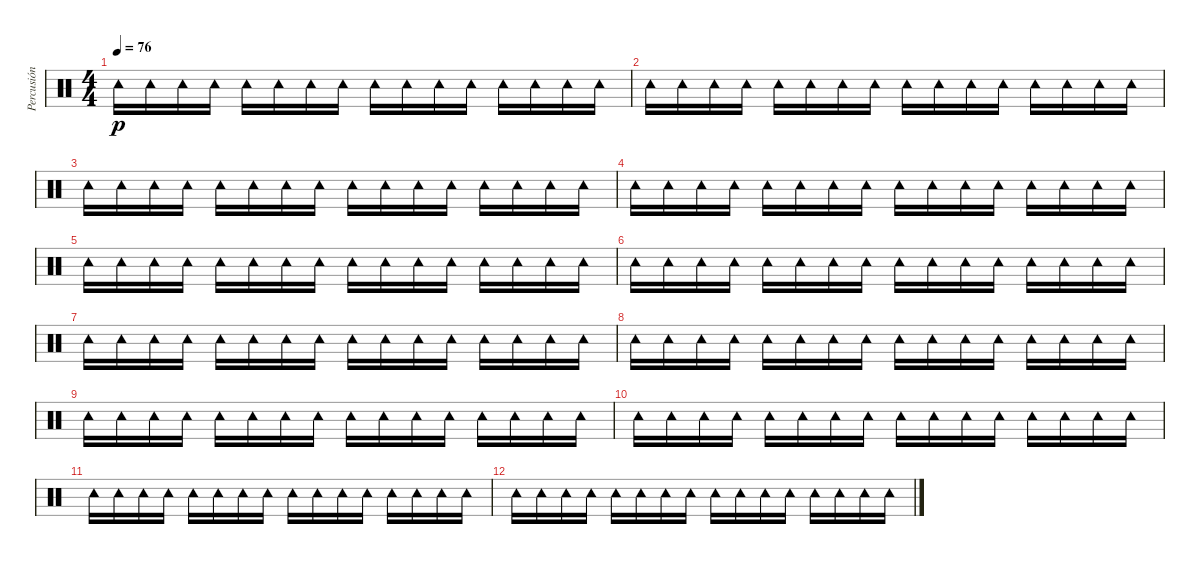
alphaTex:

\track ("Percusión" "Percusión") {instrument percussion}
\staff {score}
\articulation defaults
\ts (4 4)
\tempo 76
\clef neutral
\ks c "Tambourine (hit)".16{dy p} "Tambourine (hit)".16 "Tambourine (hit)".16 "Tambourine (hit)".16 "Tambourine (hit)".16 "Tambourine (hit)".16 "Tambourine (hit)".16 "Tambourine (hit)".16 "Tambourine (hit)".16 "Tambourine (hit)".16 "Tambourine (hit)".16 "Tambourine (hit)".16 "Tambourine (hit)".16 "Tambourine (hit)".16 "Tambourine (hit)".16 "Tambourine (hit)".16
|
"Tambourine (hit)".16 "Tambourine (hit)".16 "Tambourine (hit)".16 "Tambourine (hit)".16 "Tambourine (hit)".16 "Tambourine (hit)".16 "Tambourine (hit)".16 "Tambourine (hit)".16 "Tambourine (hit)".16 "Tambourine (hit)".16 "Tambourine (hit)".16 "Tambourine (hit)".16 "Tambourine (hit)".16 "Tambourine (hit)".16 "Tambourine (hit)".16 "Tambourine (hit)".16 |
"Tambourine (hit)".16 "Tambourine (hit)".16 "Tambourine (hit)".16 "Tambourine (hit)".16 "Tambourine (hit)".16 "Tambourine (hit)".16 "Tambourine (hit)".16 "Tambourine (hit)".16 "Tambourine (hit)".16 "Tambourine (hit)".16 "Tambourine (hit)".16 "Tambourine (hit)".16 "Tambourine (hit)".16 "Tambourine (hit)".16 "Tambourine (hit)".16 "Tambourine (hit)".16 |
"Tambourine (hit)".16 "Tambourine (hit)".16 "Tambourine (hit)".16 "Tambourine (hit)".16 "Tambourine (hit)".16 "Tambourine (hit)".16 "Tambourine (hit)".16 "Tambourine (hit)".16 "Tambourine (hit)".16 "Tambourine (hit)".16 "Tambourine (hit)".16 "Tambourine (hit)".16 "Tambourine (hit)".16 "Tambourine (hit)".16 "Tambourine (hit)".16 "Tambourine (hit)".16 |
"Tambourine (hit)".16 "Tambourine (hit)".16 "Tambourine (hit)".16 "Tambourine (hit)".16 "Tambourine (hit)".16 "Tambourine (hit)".16 "Tambourine (hit)".16 "Tambourine (hit)".16 "Tambourine (hit)".16 "Tambourine (hit)".16 "Tambourine (hit)".16 "Tambourine (hit)".16 "Tambourine (hit)".16 "Tambourine (hit)".16 "Tambourine (hit)".16 "Tambourine (hit)".16 |
"Tambourine (hit)".16 "Tambourine (hit)".16 "Tambourine (hit)".16 "Tambourine (hit)".16 "Tambourine (hit)".16 "Tambourine (hit)".16 "Tambourine (hit)".16 "Tambourine (hit)".16 "Tambourine (hit)".16 "Tambourine (hit)".16 "Tambourine (hit)".16 "Tambourine (hit)".16 "Tambourine (hit)".16 "Tambourine (hit)".16 "Tambourine (hit)".16 "Tambourine (hit)".16 |
"Tambourine (hit)".16 "Tambourine (hit)".16 "Tambourine (hit)".16 "Tambourine (hit)".16 "Tambourine (hit)".16 "Tambourine (hit)".16 "Tambourine (hit)".16 "Tambourine (hit)".16 "Tambourine (hit)".16 "Tambourine (hit)".16 "Tambourine (hit)".16 "Tambourine (hit)".16 "Tambourine (hit)".16 "Tambourine (hit)".16 "Tambourine (hit)".16 "Tambourine (hit)".16 |
"Tambourine (hit)".16 "Tambourine (hit)".16 "Tambourine (hit)".16 "Tambourine (hit)".16 "Tambourine (hit)".16 "Tambourine (hit)".16 "Tambourine (hit)".16 "Tambourine (hit)".16 "Tambourine (hit)".16 "Tambourine (hit)".16 "Tambourine (hit)".16 "Tambourine (hit)".16 "Tambourine (hit)".16 "Tambourine (hit)".16 "Tambourine (hit)".16 "Tambourine (hit)".16 |
"Tambourine (hit)".16 "Tambourine (hit)".16 "Tambourine (hit)".16 "Tambourine (hit)".16 "Tambourine (hit)".16 "Tambourine (hit)".16 "Tambourine (hit)".16 "Tambourine (hit)".16 "Tambourine (hit)".16 "Tambourine (hit)".16 "Tambourine (hit)".16 "Tambourine (hit)".16 "Tambourine (hit)".16 "Tambourine (hit)".16 "Tambourine (hit)".16 "Tambourine (hit)".16 |
"Tambourine (hit)".16 "Tambourine (hit)".16 "Tambourine (hit)".16 "Tambourine (hit)".16 "Tambourine (hit)".16 "Tambourine (hit)".16 "Tambourine (hit)".16 "Tambourine (hit)".16 "Tambourine (hit)".16 "Tambourine (hit)".16 "Tambourine (hit)".16 "Tambourine (hit)".16 "Tambourine (hit)".16 "Tambourine (hit)".16 "Tambourine (hit)".16 "Tambourine (hit)".16 |
"Tambourine (hit)".16 "Tambourine (hit)".16 "Tambourine (hit)".16 "Tambourine (hit)".16 "Tambourine (hit)".16 "Tambourine (hit)".16 "Tambourine (hit)".16 "Tambourine (hit)".16 "Tambourine (hit)".16 "Tambourine (hit)".16 "Tambourine (hit)".16 "Tambourine (hit)".16 "Tambourine (hit)".16 "Tambourine (hit)".16 "Tambourine (hit)".16 "Tambourine (hit)".16 |
"Tambourine (hit)".16 "Tambourine (hit)".16 "Tambourine (hit)".16 "Tambourine (hit)".16 "Tambourine (hit)".16 "Tambourine (hit)".16 "Tambourine (hit)".16 "Tambourine (hit)".16 "Tambourine (hit)".16 "Tambourine (hit)".16 "Tambourine (hit)".16 "Tambourine (hit)".16 "Tambourine (hit)".16 "Tambourine (hit)".16 "Tambourine (hit)".16 "Tambourine (hit)".16
